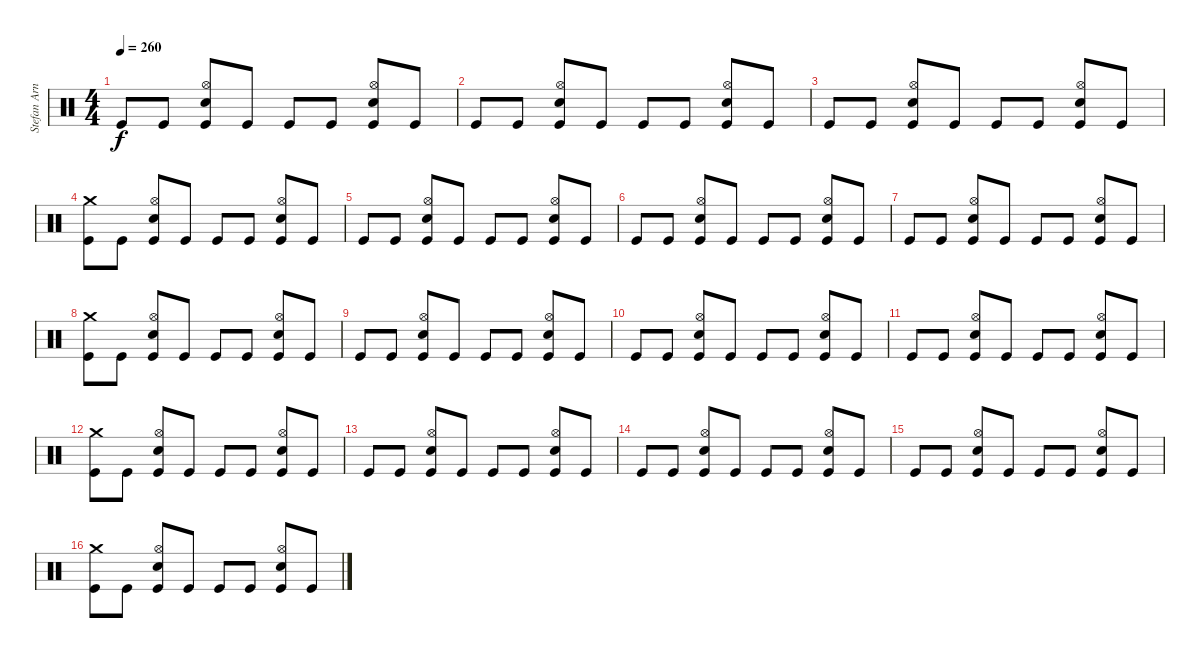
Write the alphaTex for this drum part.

\track ("Stefan Arnold" "Stefan Arn") {instrument percussion}
\staff {score}
\articulation defaults
\ts (4 4)
\tempo 260
\clef neutral
\ks c "Kick (hit)".8{dy f} "Kick (hit)".8
("Hi-Hat (open)" "Electric Snare (hit)" "Kick (hit)").8 "Kick (hit)".8 "Kick (hit)".8 "Kick (hit)".8 ("Hi-Hat (open)" "Electric Snare (hit)" "Kick (hit)").8 "Kick (hit)".8 |
"Kick (hit)".8 "Kick (hit)".8 ("Hi-Hat (open)" "Electric Snare (hit)" "Kick (hit)").8 "Kick (hit)".8 "Kick (hit)".8 "Kick (hit)".8 ("Hi-Hat (open)" "Electric Snare (hit)" "Kick (hit)").8 "Kick (hit)".8 |
"Kick (hit)".8 "Kick (hit)".8 ("Hi-Hat (open)" "Electric Snare (hit)" "Kick (hit)").8 "Kick (hit)".8 "Kick (hit)".8 "Kick (hit)".8 ("Hi-Hat (open)" "Electric Snare (hit)" "Kick (hit)").8 "Kick (hit)".8 |
("Crash medium (hit)" "Kick (hit)").8 "Kick (hit)".8 ("Hi-Hat (open)" "Electric Snare (hit)" "Kick (hit)").8 "Kick (hit)".8 "Kick (hit)".8 "Kick (hit)".8 ("Hi-Hat (open)" "Electric Snare (hit)" "Kick (hit)").8 "Kick (hit)".8 |
"Kick (hit)".8 "Kick (hit)".8 ("Hi-Hat (open)" "Electric Snare (hit)" "Kick (hit)").8 "Kick (hit)".8 "Kick (hit)".8 "Kick (hit)".8 ("Hi-Hat (open)" "Electric Snare (hit)" "Kick (hit)").8 "Kick (hit)".8 |
"Kick (hit)".8 "Kick (hit)".8 ("Hi-Hat (open)" "Electric Snare (hit)" "Kick (hit)").8 "Kick (hit)".8 "Kick (hit)".8 "Kick (hit)".8 ("Hi-Hat (open)" "Electric Snare (hit)" "Kick (hit)").8 "Kick (hit)".8 |
"Kick (hit)".8 "Kick (hit)".8 ("Hi-Hat (open)" "Electric Snare (hit)" "Kick (hit)").8 "Kick (hit)".8 "Kick (hit)".8 "Kick (hit)".8 ("Hi-Hat (open)" "Electric Snare (hit)" "Kick (hit)").8 "Kick (hit)".8 |
("Crash medium (hit)" "Kick (hit)").8 "Kick (hit)".8 ("Hi-Hat (open)" "Electric Snare (hit)" "Kick (hit)").8 "Kick (hit)".8 "Kick (hit)".8 "Kick (hit)".8 ("Hi-Hat (open)" "Electric Snare (hit)" "Kick (hit)").8 "Kick (hit)".8 |
"Kick (hit)".8 "Kick (hit)".8 ("Hi-Hat (open)" "Electric Snare (hit)" "Kick (hit)").8 "Kick (hit)".8 "Kick (hit)".8 "Kick (hit)".8 ("Hi-Hat (open)" "Electric Snare (hit)" "Kick (hit)").8 "Kick (hit)".8 |
"Kick (hit)".8 "Kick (hit)".8 ("Hi-Hat (open)" "Electric Snare (hit)" "Kick (hit)").8 "Kick (hit)".8 "Kick (hit)".8 "Kick (hit)".8 ("Hi-Hat (open)" "Electric Snare (hit)" "Kick (hit)").8 "Kick (hit)".8 |
"Kick (hit)".8 "Kick (hit)".8 ("Hi-Hat (open)" "Electric Snare (hit)" "Kick (hit)").8 "Kick (hit)".8 "Kick (hit)".8 "Kick (hit)".8 ("Hi-Hat (open)" "Electric Snare (hit)" "Kick (hit)").8 "Kick (hit)".8 |
("Crash medium (hit)" "Kick (hit)").8 "Kick (hit)".8 ("Hi-Hat (open)" "Electric Snare (hit)" "Kick (hit)").8 "Kick (hit)".8 "Kick (hit)".8 "Kick (hit)".8 ("Hi-Hat (open)" "Electric Snare (hit)" "Kick (hit)").8 "Kick (hit)".8 |
"Kick (hit)".8 "Kick (hit)".8 ("Hi-Hat (open)" "Electric Snare (hit)" "Kick (hit)").8 "Kick (hit)".8 "Kick (hit)".8 "Kick (hit)".8 ("Hi-Hat (open)" "Electric Snare (hit)" "Kick (hit)").8 "Kick (hit)".8 |
"Kick (hit)".8 "Kick (hit)".8 ("Hi-Hat (open)" "Electric Snare (hit)" "Kick (hit)").8 "Kick (hit)".8 "Kick (hit)".8 "Kick (hit)".8 ("Hi-Hat (open)" "Electric Snare (hit)" "Kick (hit)").8 "Kick (hit)".8 |
"Kick (hit)".8 "Kick (hit)".8 ("Hi-Hat (open)" "Electric Snare (hit)" "Kick (hit)").8 "Kick (hit)".8 "Kick (hit)".8 "Kick (hit)".8 ("Hi-Hat (open)" "Electric Snare (hit)" "Kick (hit)").8 "Kick (hit)".8 |
("Crash medium (hit)" "Kick (hit)").8 "Kick (hit)".8 ("Hi-Hat (open)" "Electric Snare (hit)" "Kick (hit)").8 "Kick (hit)".8 "Kick (hit)".8 "Kick (hit)".8 ("Hi-Hat (open)" "Electric Snare (hit)" "Kick (hit)").8 "Kick (hit)".8
